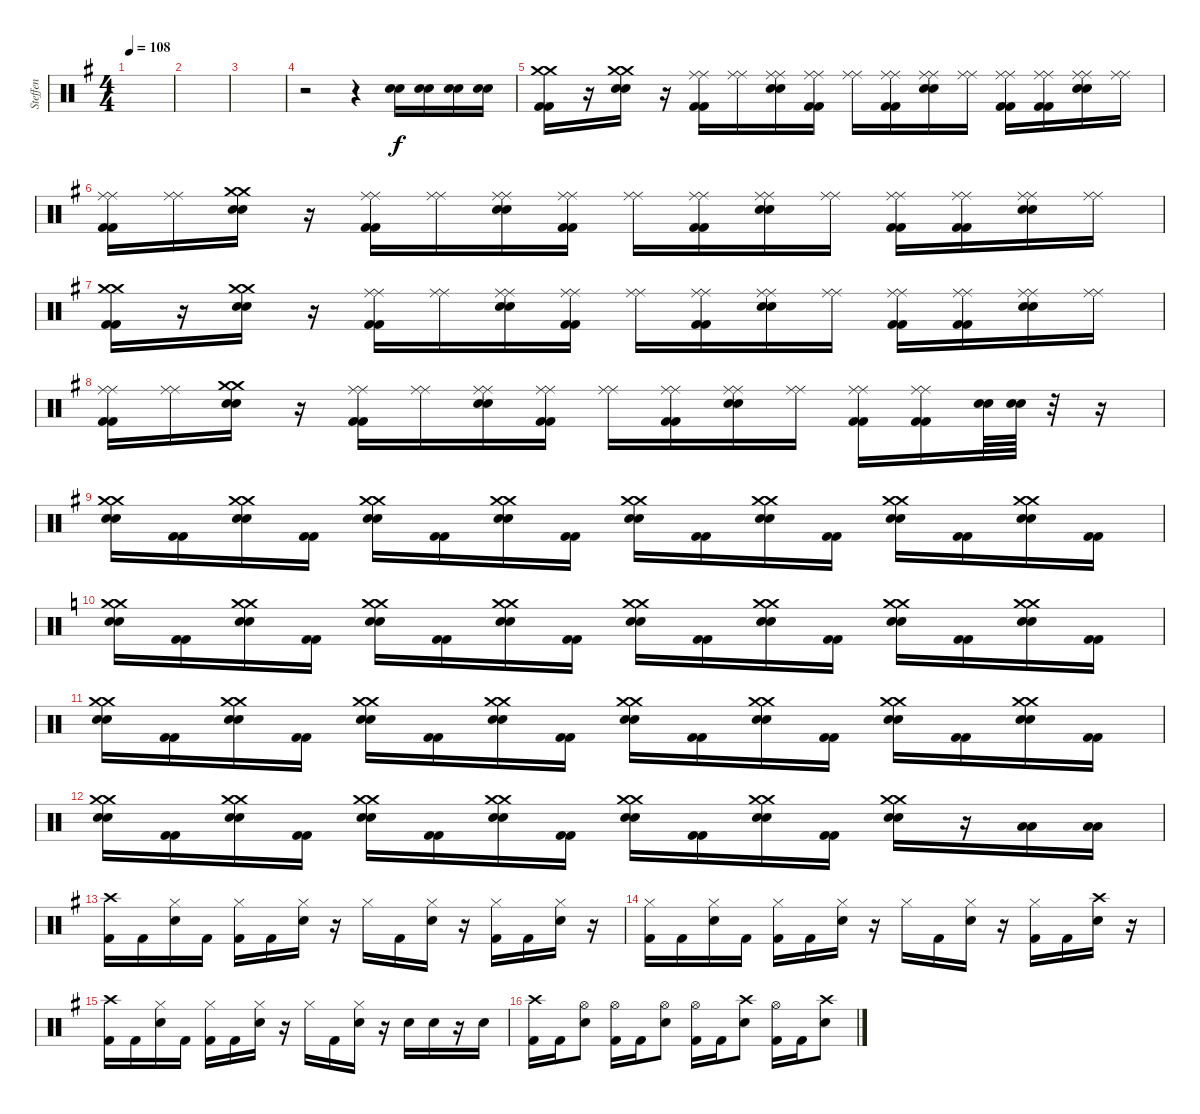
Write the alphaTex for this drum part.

\track ("Steffen" "Steffen") {instrument percussion}
\staff {score}
\articulation defaults
\ts (4 4)
\tempo 108
\clef neutral
\ks g
|
|
|
r.2 r.4 ("Snare (hit) 2" "Snare (hit) 2").16 ("Snare (hit) 2" "Snare (hit) 2").16 ("Snare (hit) 2" "Snare (hit) 2").16 ("Snare (hit) 2" "Snare (hit) 2").16 |
("Kick (hit) 2" "Kick (hit) 2" "Crash medium (hit)" "Crash medium (hit)").16 r.16 ("Snare (hit) 2" "Snare (hit) 2" "Crash medium (hit)" "Crash medium (hit)").16 r.16 ("Kick (hit) 2" "Kick (hit) 2" "Ride (middle)" "Ride (middle)").16 ("Ride (middle)" "Ride (middle)").16 ("Snare (hit) 2" "Snare (hit) 2" "Ride (middle)" "Ride (middle)").16 ("Kick (hit) 2" "Kick (hit) 2" "Ride (middle)" "Ride (middle)").16 ("Ride (middle)" "Ride (middle)").16 ("Kick (hit) 2" "Kick (hit) 2" "Ride (middle)" "Ride (middle)").16 ("Snare (hit) 2" "Snare (hit) 2" "Ride (middle)" "Ride (middle)").16 ("Ride (middle)" "Ride (middle)").16 ("Kick (hit) 2" "Kick (hit) 2" "Ride (middle)" "Ride (middle)").16 ("Kick (hit) 2" "Kick (hit) 2" "Ride (middle)" "Ride (middle)").16 ("Snare (hit) 2" "Snare (hit) 2" "Ride (middle)" "Ride (middle)").16 ("Ride (middle)" "Ride (middle)").16 |
("Kick (hit) 2" "Kick (hit) 2" "Ride (middle)" "Ride (middle)").16 ("Ride (middle)" "Ride (middle)").16 ("Snare (hit) 2" "Snare (hit) 2" "Crash medium (hit)" "Crash medium (hit)").16 r.16 ("Kick (hit) 2" "Kick (hit) 2" "Ride (middle)" "Ride (middle)").16 ("Ride (middle)" "Ride (middle)").16 ("Snare (hit) 2" "Snare (hit) 2" "Ride (middle)" "Ride (middle)").16 ("Kick (hit) 2" "Kick (hit) 2" "Ride (middle)" "Ride (middle)").16 ("Ride (middle)" "Ride (middle)").16 ("Kick (hit) 2" "Kick (hit) 2" "Ride (middle)" "Ride (middle)").16 ("Snare (hit) 2" "Snare (hit) 2" "Ride (middle)" "Ride (middle)").16 ("Ride (middle)" "Ride (middle)").16 ("Kick (hit) 2" "Kick (hit) 2" "Ride (middle)" "Ride (middle)").16 ("Kick (hit) 2" "Kick (hit) 2" "Ride (middle)" "Ride (middle)").16 ("Snare (hit) 2" "Snare (hit) 2" "Ride (middle)" "Ride (middle)").16 ("Ride (middle)" "Ride (middle)").16 |
("Kick (hit) 2" "Kick (hit) 2" "Crash medium (hit)" "Crash medium (hit)").16 r.16 ("Snare (hit) 2" "Snare (hit) 2" "Crash medium (hit)" "Crash medium (hit)").16 r.16 ("Kick (hit) 2" "Kick (hit) 2" "Ride (middle)" "Ride (middle)").16 ("Ride (middle)" "Ride (middle)").16 ("Snare (hit) 2" "Snare (hit) 2" "Ride (middle)" "Ride (middle)").16 ("Kick (hit) 2" "Kick (hit) 2" "Ride (middle)" "Ride (middle)").16 ("Ride (middle)" "Ride (middle)").16 ("Kick (hit) 2" "Kick (hit) 2" "Ride (middle)" "Ride (middle)").16 ("Snare (hit) 2" "Snare (hit) 2" "Ride (middle)" "Ride (middle)").16 ("Ride (middle)" "Ride (middle)").16 ("Kick (hit) 2" "Kick (hit) 2" "Ride (middle)" "Ride (middle)").16 ("Kick (hit) 2" "Kick (hit) 2" "Ride (middle)" "Ride (middle)").16 ("Snare (hit) 2" "Snare (hit) 2" "Ride (middle)" "Ride (middle)").16 ("Ride (middle)" "Ride (middle)").16 |
("Kick (hit) 2" "Kick (hit) 2" "Ride (middle)" "Ride (middle)").16 ("Ride (middle)" "Ride (middle)").16 ("Snare (hit) 2" "Snare (hit) 2" "Crash medium (hit)" "Crash medium (hit)").16 r.16 ("Kick (hit) 2" "Kick (hit) 2" "Ride (middle)" "Ride (middle)").16 ("Ride (middle)" "Ride (middle)").16 ("Snare (hit) 2" "Snare (hit) 2" "Ride (middle)" "Ride (middle)").16 ("Kick (hit) 2" "Kick (hit) 2" "Ride (middle)" "Ride (middle)").16 ("Ride (middle)" "Ride (middle)").16 ("Kick (hit) 2" "Kick (hit) 2" "Ride (middle)" "Ride (middle)").16 ("Snare (hit) 2" "Snare (hit) 2" "Ride (middle)" "Ride (middle)").16 ("Ride (middle)" "Ride (middle)").16 ("Kick (hit) 2" "Kick (hit) 2" "Ride (middle)" "Ride (middle)").16 ("Kick (hit) 2" "Kick (hit) 2" "Ride (middle)" "Ride (middle)").16 ("Snare (hit) 2" "Snare (hit) 2").64 ("Snare (hit) 2" "Snare (hit) 2").64 r.32 r.16 |
("Snare (hit) 2" "Snare (hit) 2" "Crash medium (hit)" "Crash medium (hit)").16 ("Kick (hit) 2" "Kick (hit) 2").16 ("Snare (hit) 2" "Snare (hit) 2" "Crash medium (hit)" "Crash medium (hit)").16 ("Kick (hit) 2" "Kick (hit) 2").16 ("Snare (hit) 2" "Snare (hit) 2" "Crash medium (hit)" "Crash medium (hit)").16 ("Kick (hit) 2" "Kick (hit) 2").16 ("Snare (hit) 2" "Snare (hit) 2" "Crash medium (hit)" "Crash medium (hit)").16 ("Kick (hit) 2" "Kick (hit) 2").16 ("Snare (hit) 2" "Snare (hit) 2" "Crash medium (hit)" "Crash medium (hit)").16 ("Kick (hit) 2" "Kick (hit) 2").16 ("Snare (hit) 2" "Snare (hit) 2" "Crash medium (hit)" "Crash medium (hit)").16 ("Kick (hit) 2" "Kick (hit) 2").16 ("Snare (hit) 2" "Snare (hit) 2" "Crash medium (hit)" "Crash medium (hit)").16 ("Kick (hit) 2" "Kick (hit) 2").16 ("Snare (hit) 2" "Snare (hit) 2" "Crash medium (hit)" "Crash medium (hit)").16 ("Kick (hit) 2" "Kick (hit) 2").16 |
\ks c
("Snare (hit) 2" "Snare (hit) 2" "Crash medium (hit)" "Crash medium (hit)").16 ("Kick (hit) 2" "Kick (hit) 2").16 ("Snare (hit) 2" "Snare (hit) 2" "Crash medium (hit)" "Crash medium (hit)").16 ("Kick (hit) 2" "Kick (hit) 2").16 ("Snare (hit) 2" "Snare (hit) 2" "Crash medium (hit)" "Crash medium (hit)").16 ("Kick (hit) 2" "Kick (hit) 2").16 ("Snare (hit) 2" "Snare (hit) 2" "Crash medium (hit)" "Crash medium (hit)").16 ("Kick (hit) 2" "Kick (hit) 2").16 ("Snare (hit) 2" "Snare (hit) 2" "Crash medium (hit)" "Crash medium (hit)").16 ("Kick (hit) 2" "Kick (hit) 2").16 ("Snare (hit) 2" "Snare (hit) 2" "Crash medium (hit)" "Crash medium (hit)").16 ("Kick (hit) 2" "Kick (hit) 2").16 ("Snare (hit) 2" "Snare (hit) 2" "Crash medium (hit)" "Crash medium (hit)").16 ("Kick (hit) 2" "Kick (hit) 2").16 ("Snare (hit) 2" "Snare (hit) 2" "Crash medium (hit)" "Crash medium (hit)").16 ("Kick (hit) 2" "Kick (hit) 2").16 |
("Snare (hit) 2" "Snare (hit) 2" "Crash medium (hit)" "Crash medium (hit)").16 ("Kick (hit) 2" "Kick (hit) 2").16 ("Snare (hit) 2" "Snare (hit) 2" "Crash medium (hit)" "Crash medium (hit)").16 ("Kick (hit) 2" "Kick (hit) 2").16 ("Snare (hit) 2" "Snare (hit) 2" "Crash medium (hit)" "Crash medium (hit)").16 ("Kick (hit) 2" "Kick (hit) 2").16 ("Snare (hit) 2" "Snare (hit) 2" "Crash medium (hit)" "Crash medium (hit)").16 ("Kick (hit) 2" "Kick (hit) 2").16 ("Snare (hit) 2" "Snare (hit) 2" "Crash medium (hit)" "Crash medium (hit)").16 ("Kick (hit) 2" "Kick (hit) 2").16 ("Snare (hit) 2" "Snare (hit) 2" "Crash medium (hit)" "Crash medium (hit)").16 ("Kick (hit) 2" "Kick (hit) 2").16 ("Snare (hit) 2" "Snare (hit) 2" "Crash medium (hit)" "Crash medium (hit)").16 ("Kick (hit) 2" "Kick (hit) 2").16 ("Snare (hit) 2" "Snare (hit) 2" "Crash medium (hit)" "Crash medium (hit)").16 ("Kick (hit) 2" "Kick (hit) 2").16 |
("Snare (hit) 2" "Snare (hit) 2" "Crash medium (hit)" "Crash medium (hit)").16 ("Kick (hit) 2" "Kick (hit) 2").16 ("Snare (hit) 2" "Snare (hit) 2" "Crash medium (hit)" "Crash medium (hit)").16 ("Kick (hit) 2" "Kick (hit) 2").16 ("Snare (hit) 2" "Snare (hit) 2" "Crash medium (hit)" "Crash medium (hit)").16 ("Kick (hit) 2" "Kick (hit) 2").16 ("Snare (hit) 2" "Snare (hit) 2" "Crash medium (hit)" "Crash medium (hit)").16 ("Kick (hit) 2" "Kick (hit) 2").16 ("Snare (hit) 2" "Snare (hit) 2" "Crash medium (hit)" "Crash medium (hit)").16 ("Kick (hit) 2" "Kick (hit) 2").16 ("Snare (hit) 2" "Snare (hit) 2" "Crash medium (hit)" "Crash medium (hit)").16 ("Kick (hit) 2" "Kick (hit) 2").16 ("Snare (hit) 2" "Snare (hit) 2" "Crash medium (hit)" "Crash medium (hit)").16 r.16 ("Low Tom (hit)" "Low Tom (hit)").16 ("Low Tom (hit)" "Low Tom (hit)").16 |
\ks g
("Crash high (hit)" "Kick (hit) 2").16 "Kick (hit) 2".16 ("Hi-Hat (closed)" "Electric Snare (hit)").16 "Kick (hit) 2".16 ("Hi-Hat (closed)" "Kick (hit) 2").16 "Kick (hit) 2".16 ("Hi-Hat (closed)" "Electric Snare (hit)").16 r.16 "Hi-Hat (closed)".16 "Kick (hit) 2".16 ("Hi-Hat (closed)" "Electric Snare (hit)").16 r.16 ("Hi-Hat (closed)" "Kick (hit) 2").16 "Kick (hit) 2".16 ("Hi-Hat (closed)" "Electric Snare (hit)").16 r.16 |
("Hi-Hat (closed)" "Kick (hit) 2").16 "Kick (hit) 2".16 ("Hi-Hat (closed)" "Electric Snare (hit)").16 "Kick (hit) 2".16 ("Hi-Hat (closed)" "Kick (hit) 2").16 "Kick (hit) 2".16 ("Hi-Hat (closed)" "Electric Snare (hit)").16 r.16 "Hi-Hat (closed)".16 "Kick (hit) 2".16 ("Hi-Hat (closed)" "Electric Snare (hit)").16 r.16 ("Hi-Hat (closed)" "Kick (hit) 2").16 "Kick (hit) 2".16 ("Crash high (hit)" "Electric Snare (hit)").16 r.16 |
("Crash high (hit)" "Kick (hit) 2").16 "Kick (hit) 2".16 ("Hi-Hat (closed)" "Electric Snare (hit)").16 "Kick (hit) 2".16 ("Hi-Hat (closed)" "Kick (hit) 2").16 "Kick (hit) 2".16 ("Hi-Hat (closed)" "Electric Snare (hit)").16 r.16 "Hi-Hat (closed)".16 "Kick (hit) 2".16 ("Hi-Hat (closed)" "Electric Snare (hit)").16 r.16 "Electric Snare (hit)".16 "Electric Snare (hit)".16 r.16 "Electric Snare (hit)".16 |
("Crash high (hit)" "Kick (hit) 2").16 "Kick (hit) 2".16 ("Hi-Hat (open)" "Electric Snare (hit)").8 ("Hi-Hat (open)" "Kick (hit) 2").16 "Kick (hit) 2".16 ("Hi-Hat (open)" "Electric Snare (hit)").8 ("Hi-Hat (open)" "Kick (hit) 2").16 "Kick (hit) 2".16 ("Crash high (hit)" "Electric Snare (hit)").8 ("Hi-Hat (open)" "Kick (hit) 2").16 "Kick (hit) 2".16 ("Crash high (hit)" "Electric Snare (hit)").8
